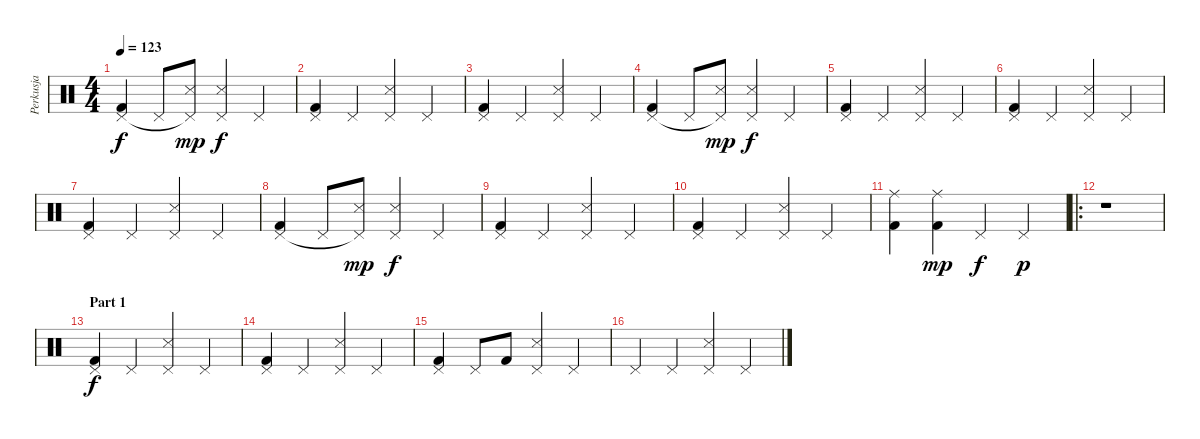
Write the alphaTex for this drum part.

\track ("Perkusja" "Perkusja") {instrument percussion}
\staff {score}
\articulation defaults
\ts (4 4)
\tempo 123
\clef neutral
\ks c
("Kick (hit) 2" "Pedal Hi-Hat (hit)").4{dy f} "Pedal Hi-Hat (hit)".8 ("Snare (side stick) 3" "Pedal Hi-Hat (hit)"{t}).8{dy mp} ("Snare (side stick) 3" "Pedal Hi-Hat (hit)").4{dy f} "Pedal Hi-Hat (hit)".4 |
("Kick (hit) 2" "Pedal Hi-Hat (hit)").4 "Pedal Hi-Hat (hit)".4 ("Snare (side stick) 3" "Pedal Hi-Hat (hit)").4 "Pedal Hi-Hat (hit)".4 |
("Kick (hit) 2" "Pedal Hi-Hat (hit)").4 "Pedal Hi-Hat (hit)".4 ("Snare (side stick) 3" "Pedal Hi-Hat (hit)").4 "Pedal Hi-Hat (hit)".4 |
("Kick (hit) 2" "Pedal Hi-Hat (hit)").4 "Pedal Hi-Hat (hit)".8 ("Snare (side stick) 3" "Pedal Hi-Hat (hit)"{t}).8{dy mp} ("Snare (side stick) 3" "Pedal Hi-Hat (hit)").4{dy f} "Pedal Hi-Hat (hit)".4 |
("Kick (hit) 2" "Pedal Hi-Hat (hit)").4 "Pedal Hi-Hat (hit)".4 ("Snare (side stick) 3" "Pedal Hi-Hat (hit)").4 "Pedal Hi-Hat (hit)".4 |
("Kick (hit) 2" "Pedal Hi-Hat (hit)").4 "Pedal Hi-Hat (hit)".4 ("Snare (side stick) 3" "Pedal Hi-Hat (hit)").4 "Pedal Hi-Hat (hit)".4 |
("Kick (hit) 2" "Pedal Hi-Hat (hit)").4 "Pedal Hi-Hat (hit)".4 ("Snare (side stick) 3" "Pedal Hi-Hat (hit)").4 "Pedal Hi-Hat (hit)".4 |
("Kick (hit) 2" "Pedal Hi-Hat (hit)").4 "Pedal Hi-Hat (hit)".8 ("Snare (side stick) 3" "Pedal Hi-Hat (hit)"{t}).8{dy mp} ("Snare (side stick) 3" "Pedal Hi-Hat (hit)").4{dy f} "Pedal Hi-Hat (hit)".4 |
("Kick (hit) 2" "Pedal Hi-Hat (hit)").4 "Pedal Hi-Hat (hit)".4 ("Snare (side stick) 3" "Pedal Hi-Hat (hit)").4 "Pedal Hi-Hat (hit)".4 |
("Kick (hit) 2" "Pedal Hi-Hat (hit)").4 "Pedal Hi-Hat (hit)".4 ("Snare (side stick) 3" "Pedal Hi-Hat (hit)").4 "Pedal Hi-Hat (hit)".4 |
("Ride (middle)" "Kick (hit) 2").4 ("Ride (middle)" "Kick (hit) 2").4{dy mp} "Pedal Hi-Hat (hit)".4{dy f} "Pedal Hi-Hat (hit)".4{dy p} |
\ro
r.1 |
\section ("" "Part 1")
("Kick (hit) 2" "Pedal Hi-Hat (hit)").4{dy f} "Pedal Hi-Hat (hit)".4 ("Snare (side stick) 3" "Pedal Hi-Hat (hit)").4 "Pedal Hi-Hat (hit)".4 |
("Kick (hit) 2" "Pedal Hi-Hat (hit)").4 "Pedal Hi-Hat (hit)".4 ("Snare (side stick) 3" "Pedal Hi-Hat (hit)").4 "Pedal Hi-Hat (hit)".4 |
("Kick (hit) 2" "Pedal Hi-Hat (hit)").4 "Pedal Hi-Hat (hit)".8 "Kick (hit) 2".8 ("Snare (side stick) 3" "Pedal Hi-Hat (hit)").4 "Pedal Hi-Hat (hit)".4 |
"Pedal Hi-Hat (hit)".4 "Pedal Hi-Hat (hit)".4 ("Snare (side stick) 3" "Pedal Hi-Hat (hit)").4 "Pedal Hi-Hat (hit)".4
